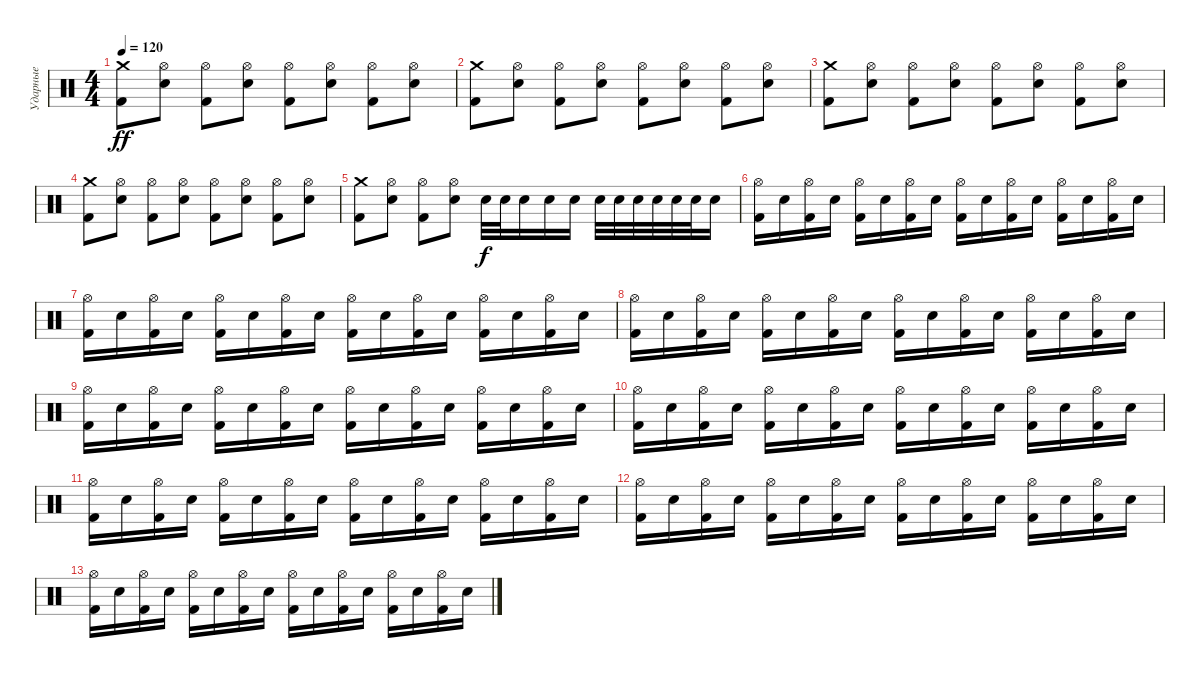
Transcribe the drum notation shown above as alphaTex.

\track ("Ударные" "Ударные") {instrument percussion}
\staff {score}
\articulation defaults
\ts (4 4)
\tempo 120
\clef neutral
\ks c
("Crash medium (hit)" "Kick (hit) 2").8{dy ff} ("Hi-Hat (open)" "Electric Snare (hit)").8 ("Hi-Hat (open)" "Kick (hit) 2").8 ("Hi-Hat (open)" "Electric Snare (hit)").8 ("Hi-Hat (open)" "Kick (hit) 2").8 ("Hi-Hat (open)" "Electric Snare (hit)").8 ("Hi-Hat (open)" "Kick (hit) 2").8 ("Hi-Hat (open)" "Electric Snare (hit)").8 |
("Crash medium (hit)" "Kick (hit) 2").8 ("Hi-Hat (open)" "Electric Snare (hit)").8 ("Hi-Hat (open)" "Kick (hit) 2").8 ("Hi-Hat (open)" "Electric Snare (hit)").8 ("Hi-Hat (open)" "Kick (hit) 2").8 ("Hi-Hat (open)" "Electric Snare (hit)").8 ("Hi-Hat (open)" "Kick (hit) 2").8 ("Hi-Hat (open)" "Electric Snare (hit)").8 |
("Crash medium (hit)" "Kick (hit) 2").8 ("Hi-Hat (open)" "Electric Snare (hit)").8 ("Hi-Hat (open)" "Kick (hit) 2").8 ("Hi-Hat (open)" "Electric Snare (hit)").8 ("Hi-Hat (open)" "Kick (hit) 2").8 ("Hi-Hat (open)" "Electric Snare (hit)").8 ("Hi-Hat (open)" "Kick (hit) 2").8 ("Hi-Hat (open)" "Electric Snare (hit)").8 |
("Crash medium (hit)" "Kick (hit) 2").8 ("Hi-Hat (open)" "Electric Snare (hit)").8 ("Hi-Hat (open)" "Kick (hit) 2").8 ("Hi-Hat (open)" "Electric Snare (hit)").8 ("Hi-Hat (open)" "Kick (hit) 2").8 ("Hi-Hat (open)" "Electric Snare (hit)").8 ("Hi-Hat (open)" "Kick (hit) 2").8 ("Hi-Hat (open)" "Electric Snare (hit)").8 |
("Crash medium (hit)" "Kick (hit) 2").8 ("Hi-Hat (open)" "Electric Snare (hit)").8 ("Hi-Hat (open)" "Kick (hit) 2").8 ("Hi-Hat (open)" "Electric Snare (hit)").8 "Electric Snare (hit)".32{dy f} "Electric Snare (hit)".32 "Electric Snare (hit)".16 "Electric Snare (hit)".16 "Electric Snare (hit)".16 "Electric Snare (hit)".32 "Electric Snare (hit)".32 "Electric Snare (hit)".32 "Electric Snare (hit)".32 "Electric Snare (hit)".32 "Electric Snare (hit)".32 "Electric Snare (hit)".16 |
("Hi-Hat (open)" "Kick (hit) 2").16 "Electric Snare (hit)".16 ("Hi-Hat (open)" "Kick (hit) 2").16 "Electric Snare (hit)".16 ("Hi-Hat (open)" "Kick (hit) 2").16 "Electric Snare (hit)".16 ("Hi-Hat (open)" "Kick (hit) 2").16 "Electric Snare (hit)".16 ("Hi-Hat (open)" "Kick (hit) 2").16 "Electric Snare (hit)".16 ("Hi-Hat (open)" "Kick (hit) 2").16 "Electric Snare (hit)".16 ("Hi-Hat (open)" "Kick (hit) 2").16 "Electric Snare (hit)".16 ("Hi-Hat (open)" "Kick (hit) 2").16 "Electric Snare (hit)".16 |
("Hi-Hat (open)" "Kick (hit) 2").16 "Electric Snare (hit)".16 ("Hi-Hat (open)" "Kick (hit) 2").16 "Electric Snare (hit)".16 ("Hi-Hat (open)" "Kick (hit) 2").16 "Electric Snare (hit)".16 ("Hi-Hat (open)" "Kick (hit) 2").16 "Electric Snare (hit)".16 ("Hi-Hat (open)" "Kick (hit) 2").16 "Electric Snare (hit)".16 ("Hi-Hat (open)" "Kick (hit) 2").16 "Electric Snare (hit)".16 ("Hi-Hat (open)" "Kick (hit) 2").16 "Electric Snare (hit)".16 ("Hi-Hat (open)" "Kick (hit) 2").16 "Electric Snare (hit)".16 |
("Hi-Hat (open)" "Kick (hit) 2").16 "Electric Snare (hit)".16 ("Hi-Hat (open)" "Kick (hit) 2").16 "Electric Snare (hit)".16 ("Hi-Hat (open)" "Kick (hit) 2").16 "Electric Snare (hit)".16 ("Hi-Hat (open)" "Kick (hit) 2").16 "Electric Snare (hit)".16 ("Hi-Hat (open)" "Kick (hit) 2").16 "Electric Snare (hit)".16 ("Hi-Hat (open)" "Kick (hit) 2").16 "Electric Snare (hit)".16 ("Hi-Hat (open)" "Kick (hit) 2").16 "Electric Snare (hit)".16 ("Hi-Hat (open)" "Kick (hit) 2").16 "Electric Snare (hit)".16 |
("Hi-Hat (open)" "Kick (hit) 2").16 "Electric Snare (hit)".16 ("Hi-Hat (open)" "Kick (hit) 2").16 "Electric Snare (hit)".16 ("Hi-Hat (open)" "Kick (hit) 2").16 "Electric Snare (hit)".16 ("Hi-Hat (open)" "Kick (hit) 2").16 "Electric Snare (hit)".16 ("Hi-Hat (open)" "Kick (hit) 2").16 "Electric Snare (hit)".16 ("Hi-Hat (open)" "Kick (hit) 2").16 "Electric Snare (hit)".16 ("Hi-Hat (open)" "Kick (hit) 2").16 "Electric Snare (hit)".16 ("Hi-Hat (open)" "Kick (hit) 2").16 "Electric Snare (hit)".16 |
("Hi-Hat (open)" "Kick (hit) 2").16 "Electric Snare (hit)".16 ("Hi-Hat (open)" "Kick (hit) 2").16 "Electric Snare (hit)".16 ("Hi-Hat (open)" "Kick (hit) 2").16 "Electric Snare (hit)".16 ("Hi-Hat (open)" "Kick (hit) 2").16 "Electric Snare (hit)".16 ("Hi-Hat (open)" "Kick (hit) 2").16 "Electric Snare (hit)".16 ("Hi-Hat (open)" "Kick (hit) 2").16 "Electric Snare (hit)".16 ("Hi-Hat (open)" "Kick (hit) 2").16 "Electric Snare (hit)".16 ("Hi-Hat (open)" "Kick (hit) 2").16 "Electric Snare (hit)".16 |
("Hi-Hat (open)" "Kick (hit) 2").16 "Electric Snare (hit)".16 ("Hi-Hat (open)" "Kick (hit) 2").16 "Electric Snare (hit)".16 ("Hi-Hat (open)" "Kick (hit) 2").16 "Electric Snare (hit)".16 ("Hi-Hat (open)" "Kick (hit) 2").16 "Electric Snare (hit)".16 ("Hi-Hat (open)" "Kick (hit) 2").16 "Electric Snare (hit)".16 ("Hi-Hat (open)" "Kick (hit) 2").16 "Electric Snare (hit)".16 ("Hi-Hat (open)" "Kick (hit) 2").16 "Electric Snare (hit)".16 ("Hi-Hat (open)" "Kick (hit) 2").16 "Electric Snare (hit)".16 |
("Hi-Hat (open)" "Kick (hit) 2").16 "Electric Snare (hit)".16 ("Hi-Hat (open)" "Kick (hit) 2").16 "Electric Snare (hit)".16 ("Hi-Hat (open)" "Kick (hit) 2").16 "Electric Snare (hit)".16 ("Hi-Hat (open)" "Kick (hit) 2").16 "Electric Snare (hit)".16 ("Hi-Hat (open)" "Kick (hit) 2").16 "Electric Snare (hit)".16 ("Hi-Hat (open)" "Kick (hit) 2").16 "Electric Snare (hit)".16 ("Hi-Hat (open)" "Kick (hit) 2").16 "Electric Snare (hit)".16 ("Hi-Hat (open)" "Kick (hit) 2").16 "Electric Snare (hit)".16 |
("Hi-Hat (open)" "Kick (hit) 2").16 "Electric Snare (hit)".16 ("Hi-Hat (open)" "Kick (hit) 2").16 "Electric Snare (hit)".16 ("Hi-Hat (open)" "Kick (hit) 2").16 "Electric Snare (hit)".16 ("Hi-Hat (open)" "Kick (hit) 2").16 "Electric Snare (hit)".16 ("Hi-Hat (open)" "Kick (hit) 2").16 "Electric Snare (hit)".16 ("Hi-Hat (open)" "Kick (hit) 2").16 "Electric Snare (hit)".16 ("Hi-Hat (open)" "Kick (hit) 2").16 "Electric Snare (hit)".16 ("Hi-Hat (open)" "Kick (hit) 2").16 "Electric Snare (hit)".16
